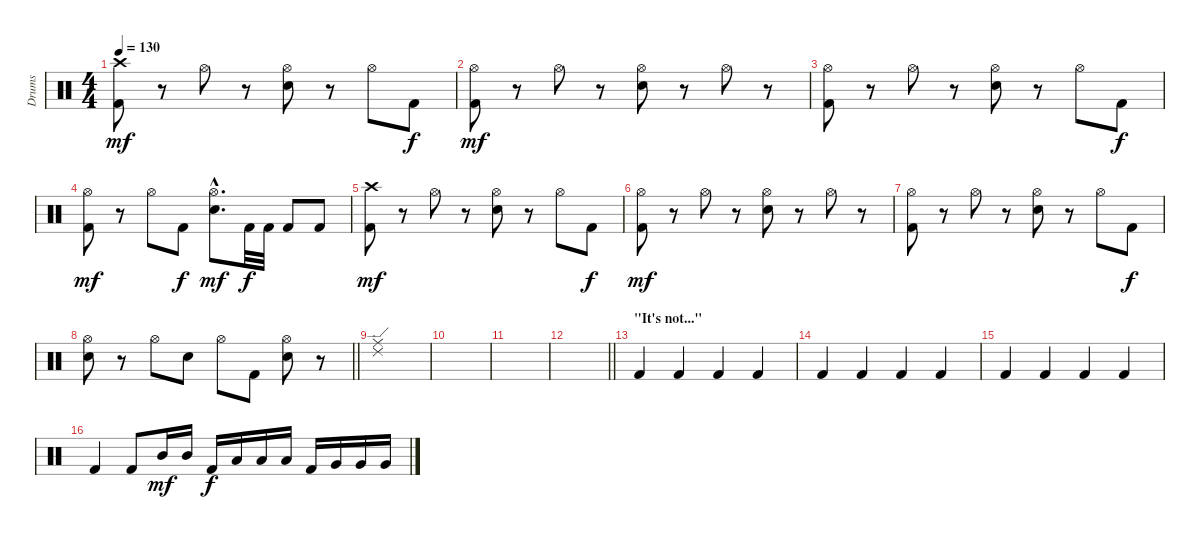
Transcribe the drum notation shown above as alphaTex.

\track ("Drums" "Drums") {instrument percussion}
\staff {score}
\articulation defaults
\ts (4 4)
\tempo 130
\clef neutral
\ks c
("Crash high (hit)" "Kick (hit) 2").8{dy mf} r.8 "Hi-Hat (open)".8 r.8 ("Hi-Hat (open)" "Electric Snare (hit)").8 r.8 "Hi-Hat (open)".8 "Kick (hit) 2".8{dy f} |
("Hi-Hat (open)" "Kick (hit) 2").8{dy mf} r.8 "Hi-Hat (open)".8 r.8 ("Hi-Hat (open)" "Electric Snare (hit)").8 r.8 "Hi-Hat (open)".8 r.8 |
("Hi-Hat (open)" "Kick (hit) 2").8 r.8 "Hi-Hat (open)".8 r.8 ("Hi-Hat (open)" "Electric Snare (hit)").8 r.8 "Hi-Hat (open)".8 "Kick (hit) 2".8{dy f} |
("Hi-Hat (open)" "Kick (hit) 2").8{dy mf} r.8 "Hi-Hat (open)".8 "Kick (hit) 2".8{dy f} ("Hi-Hat (open)"{hac} "Electric Snare (hit)"{hac}).8{d dy mf} "Kick (hit) 2".32{dy f} "Kick (hit) 2".32 "Kick (hit) 2".8 "Kick (hit) 2".8 |
("Crash high (hit)" "Kick (hit) 2").8{dy mf} r.8 "Hi-Hat (open)".8 r.8 ("Hi-Hat (open)" "Electric Snare (hit)").8 r.8 "Hi-Hat (open)".8 "Kick (hit) 2".8{dy f} |
("Hi-Hat (open)" "Kick (hit) 2").8{dy mf} r.8 "Hi-Hat (open)".8 r.8 ("Hi-Hat (open)" "Electric Snare (hit)").8 r.8 "Hi-Hat (open)".8 r.8 |
("Hi-Hat (open)" "Kick (hit) 2").8 r.8 "Hi-Hat (open)".8 r.8 ("Hi-Hat (open)" "Electric Snare (hit)").8 r.8 "Hi-Hat (open)".8 "Kick (hit) 2".8{dy f} |
\barLineRight lightlight
("Hi-Hat (open)" "Electric Snare (hit)").8 r.8 "Hi-Hat (open)".8 "Electric Snare (hit)".8 "Hi-Hat (open)".8 "Kick (hit) 2".8 ("Hi-Hat (open)" "Electric Snare (hit)").8 r.8 |
\section ("" "")
("Ride (middle)" "Ride (edge) 2").1 |
|
|
\barLineRight lightlight
|
\section ("" "\"It's not...\"")
"Kick (hit) 2".4 "Kick (hit) 2".4 "Kick (hit) 2".4 "Kick (hit) 2".4 |
"Kick (hit) 2".4 "Kick (hit) 2".4 "Kick (hit) 2".4 "Kick (hit) 2".4 |
"Kick (hit) 2".4 "Kick (hit) 2".4 "Kick (hit) 2".4 "Kick (hit) 2".4 |
"Kick (hit) 2".4 "Kick (hit) 2".8 "Mid Tom (hit)".16{dy mf} "Mid Tom (hit)".16 "Kick (hit) 2".16{dy f} "Low Tom (hit)".16 "Low Tom (hit)".16 "Low Tom (hit)".16 "Kick (hit) 2".16 "Very Low Tom (hit)".16 "Very Low Tom (hit)".16 "Very Low Tom (hit)".16
